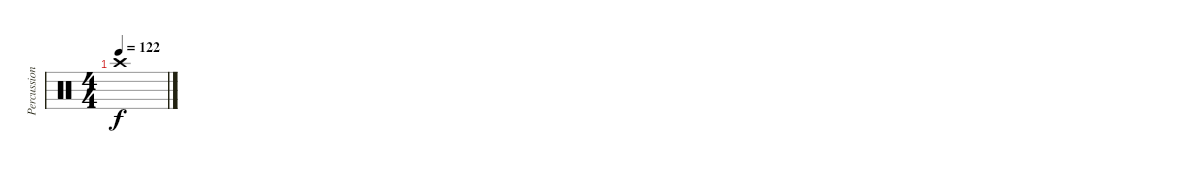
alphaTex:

\track ("Percussion" "Percussion") {instrument percussion}
\staff {score}
\articulation defaults
\ts (4 4)
\tempo 122
\clef neutral
\ks c "Crash high (hit)".1{dy f}
